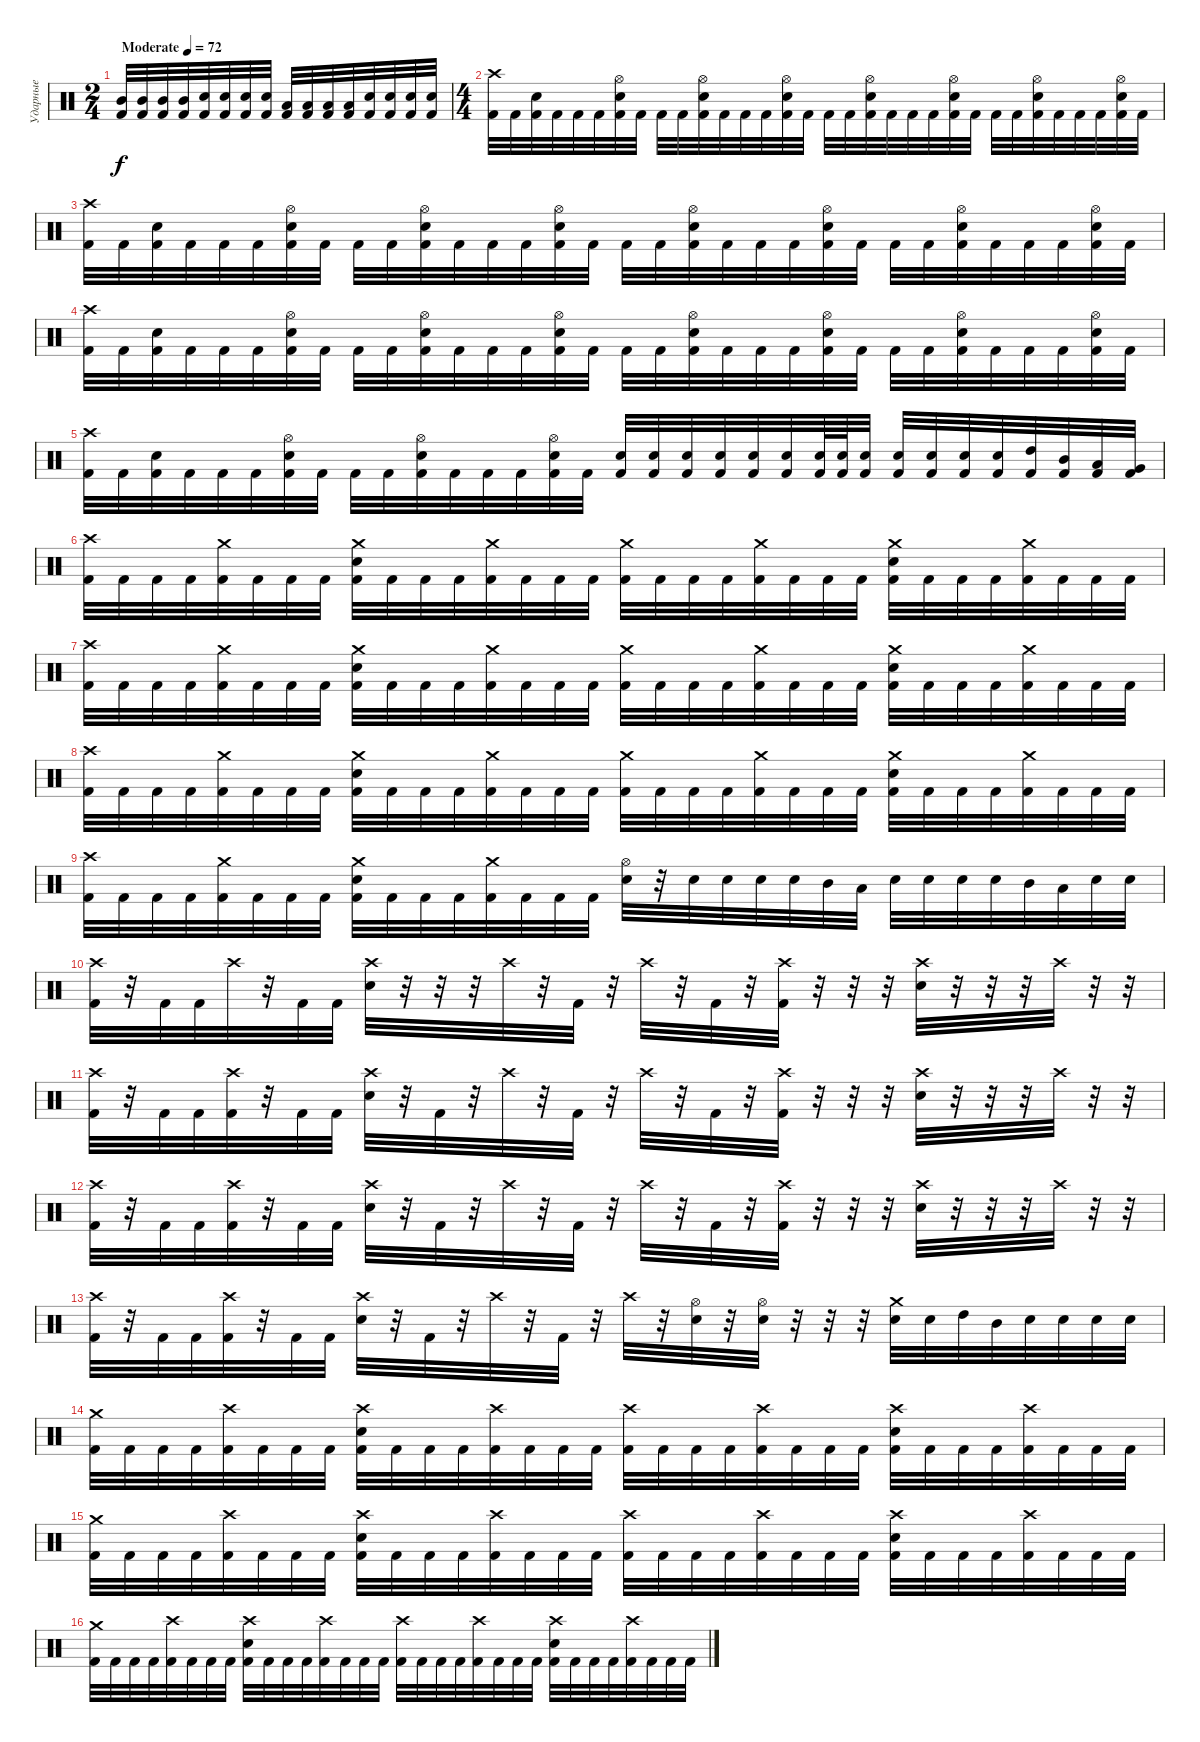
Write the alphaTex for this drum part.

\track ("Ударные" "Ударные") {instrument percussion}
\staff {score}
\articulation defaults
\ts (2 4)
\tempo (72 "Moderate")
\clef neutral
\ks c
("Mid Tom (hit)" "Kick (hit) 2").32{dy f volume 1} ("Mid Tom (hit)" "Kick (hit) 2").32{volume 2} ("Mid Tom (hit)" "Kick (hit) 2").32{volume 3} ("Mid Tom (hit)" "Kick (hit) 2").32{volume 4} ("Electric Snare (hit)" "Kick (hit) 2").32{volume 5} ("Electric Snare (hit)" "Kick (hit) 2").32{volume 6} ("Electric Snare (hit)" "Kick (hit) 2").32{volume 7} ("Electric Snare (hit)" "Kick (hit) 2").32{volume 8} ("Low Tom (hit)" "Kick (hit) 2").32{volume 9} ("Low Tom (hit)" "Kick (hit) 2").32{volume 10} ("Low Tom (hit)" "Kick (hit) 2").32{volume 11} ("Low Tom (hit)" "Kick (hit) 2").32{volume 12} ("Electric Snare (hit)" "Kick (hit) 2").32{volume 13} ("Electric Snare (hit)" "Kick (hit) 2").32{volume 14} ("Electric Snare (hit)" "Kick (hit) 2").32{volume 15} ("Electric Snare (hit)" "Kick (hit) 2").32{volume 16} |
\ts (4 4)
("Crash high (hit)" "Kick (hit) 2").32 "Kick (hit) 2".32 ("Kick (hit) 2" "Electric Snare (hit)").32 "Kick (hit) 2".32 "Kick (hit) 2".32 "Kick (hit) 2".32 ("Hi-Hat (open)" "Kick (hit) 2" "Electric Snare (hit)").32 "Kick (hit) 2".32 "Kick (hit) 2".32 "Kick (hit) 2".32 ("Hi-Hat (open)" "Kick (hit) 2" "Electric Snare (hit)").32 "Kick (hit) 2".32 "Kick (hit) 2".32 "Kick (hit) 2".32 ("Hi-Hat (open)" "Kick (hit) 2" "Electric Snare (hit)").32 "Kick (hit) 2".32 "Kick (hit) 2".32 "Kick (hit) 2".32 ("Hi-Hat (open)" "Kick (hit) 2" "Electric Snare (hit)").32 "Kick (hit) 2".32 "Kick (hit) 2".32 "Kick (hit) 2".32 ("Hi-Hat (open)" "Kick (hit) 2" "Electric Snare (hit)").32 "Kick (hit) 2".32 "Kick (hit) 2".32 "Kick (hit) 2".32 ("Hi-Hat (open)" "Kick (hit) 2" "Electric Snare (hit)").32 "Kick (hit) 2".32 "Kick (hit) 2".32 "Kick (hit) 2".32 ("Hi-Hat (open)" "Kick (hit) 2" "Electric Snare (hit)").32 "Kick (hit) 2".32 |
("Crash high (hit)" "Kick (hit) 2").32 "Kick (hit) 2".32 ("Kick (hit) 2" "Electric Snare (hit)").32 "Kick (hit) 2".32 "Kick (hit) 2".32 "Kick (hit) 2".32 ("Hi-Hat (open)" "Kick (hit) 2" "Electric Snare (hit)").32 "Kick (hit) 2".32 "Kick (hit) 2".32 "Kick (hit) 2".32 ("Hi-Hat (open)" "Kick (hit) 2" "Electric Snare (hit)").32 "Kick (hit) 2".32 "Kick (hit) 2".32 "Kick (hit) 2".32 ("Hi-Hat (open)" "Kick (hit) 2" "Electric Snare (hit)").32 "Kick (hit) 2".32 "Kick (hit) 2".32 "Kick (hit) 2".32 ("Hi-Hat (open)" "Kick (hit) 2" "Electric Snare (hit)").32 "Kick (hit) 2".32 "Kick (hit) 2".32 "Kick (hit) 2".32 ("Hi-Hat (open)" "Kick (hit) 2" "Electric Snare (hit)").32 "Kick (hit) 2".32 "Kick (hit) 2".32 "Kick (hit) 2".32 ("Hi-Hat (open)" "Kick (hit) 2" "Electric Snare (hit)").32 "Kick (hit) 2".32 "Kick (hit) 2".32 "Kick (hit) 2".32 ("Hi-Hat (open)" "Kick (hit) 2" "Electric Snare (hit)").32 "Kick (hit) 2".32 |
("Crash high (hit)" "Kick (hit) 2").32 "Kick (hit) 2".32 ("Kick (hit) 2" "Electric Snare (hit)").32 "Kick (hit) 2".32 "Kick (hit) 2".32 "Kick (hit) 2".32 ("Hi-Hat (open)" "Kick (hit) 2" "Electric Snare (hit)").32 "Kick (hit) 2".32 "Kick (hit) 2".32 "Kick (hit) 2".32 ("Hi-Hat (open)" "Kick (hit) 2" "Electric Snare (hit)").32 "Kick (hit) 2".32 "Kick (hit) 2".32 "Kick (hit) 2".32 ("Hi-Hat (open)" "Kick (hit) 2" "Electric Snare (hit)").32 "Kick (hit) 2".32 "Kick (hit) 2".32 "Kick (hit) 2".32 ("Hi-Hat (open)" "Kick (hit) 2" "Electric Snare (hit)").32 "Kick (hit) 2".32 "Kick (hit) 2".32 "Kick (hit) 2".32 ("Hi-Hat (open)" "Kick (hit) 2" "Electric Snare (hit)").32 "Kick (hit) 2".32 "Kick (hit) 2".32 "Kick (hit) 2".32 ("Hi-Hat (open)" "Kick (hit) 2" "Electric Snare (hit)").32 "Kick (hit) 2".32 "Kick (hit) 2".32 "Kick (hit) 2".32 ("Hi-Hat (open)" "Kick (hit) 2" "Electric Snare (hit)").32 "Kick (hit) 2".32 |
("Crash high (hit)" "Kick (hit) 2").32 "Kick (hit) 2".32 ("Kick (hit) 2" "Electric Snare (hit)").32 "Kick (hit) 2".32 "Kick (hit) 2".32 "Kick (hit) 2".32 ("Hi-Hat (open)" "Kick (hit) 2" "Electric Snare (hit)").32 "Kick (hit) 2".32 "Kick (hit) 2".32 "Kick (hit) 2".32 ("Hi-Hat (open)" "Kick (hit) 2" "Electric Snare (hit)").32 "Kick (hit) 2".32 "Kick (hit) 2".32 "Kick (hit) 2".32 ("Hi-Hat (open)" "Kick (hit) 2" "Electric Snare (hit)").32 "Kick (hit) 2".32 ("Kick (hit) 2" "Electric Snare (hit)").32 ("Kick (hit) 2" "Electric Snare (hit)").32 ("Kick (hit) 2" "Electric Snare (hit)").32 ("Kick (hit) 2" "Electric Snare (hit)").32 ("Kick (hit) 2" "Electric Snare (hit)").32 ("Kick (hit) 2" "Electric Snare (hit)").32 ("Kick (hit) 2" "Electric Snare (hit)").64 ("Kick (hit) 2" "Electric Snare (hit)").64 ("Kick (hit) 2" "Electric Snare (hit)").32 ("Kick (hit) 2" "Electric Snare (hit)").32 ("Kick (hit) 2" "Electric Snare (hit)").32 ("Kick (hit) 2" "Electric Snare (hit)").32 ("Kick (hit) 2" "Electric Snare (hit)").32 ("Kick (hit) 2" "High Tom (hit)").32 ("Kick (hit) 2" "Mid Tom (hit)").32 ("Kick (hit) 2" "Low Tom (hit)").32 ("Kick (hit) 2" "Very Low Tom (hit)").32 |
("Crash high (hit)" "Kick (hit) 2").32 "Kick (hit) 2".32 "Kick (hit) 2".32 "Kick (hit) 2".32 ("Crash medium (hit)" "Kick (hit) 2").32 "Kick (hit) 2".32 "Kick (hit) 2".32 "Kick (hit) 2".32 ("Crash medium (hit)" "Kick (hit) 2" "Electric Snare (hit)").32 "Kick (hit) 2".32 "Kick (hit) 2".32 "Kick (hit) 2".32 ("Crash medium (hit)" "Kick (hit) 2").32 "Kick (hit) 2".32 "Kick (hit) 2".32 "Kick (hit) 2".32 ("Crash medium (hit)" "Kick (hit) 2").32 "Kick (hit) 2".32 "Kick (hit) 2".32 "Kick (hit) 2".32 ("Crash medium (hit)" "Kick (hit) 2").32 "Kick (hit) 2".32 "Kick (hit) 2".32 "Kick (hit) 2".32 ("Crash medium (hit)" "Kick (hit) 2" "Electric Snare (hit)").32 "Kick (hit) 2".32 "Kick (hit) 2".32 "Kick (hit) 2".32 ("Crash medium (hit)" "Kick (hit) 2").32 "Kick (hit) 2".32 "Kick (hit) 2".32 "Kick (hit) 2".32 |
("Crash high (hit)" "Kick (hit) 2").32 "Kick (hit) 2".32 "Kick (hit) 2".32 "Kick (hit) 2".32 ("Crash medium (hit)" "Kick (hit) 2").32 "Kick (hit) 2".32 "Kick (hit) 2".32 "Kick (hit) 2".32 ("Crash medium (hit)" "Kick (hit) 2" "Electric Snare (hit)").32 "Kick (hit) 2".32 "Kick (hit) 2".32 "Kick (hit) 2".32 ("Crash medium (hit)" "Kick (hit) 2").32 "Kick (hit) 2".32 "Kick (hit) 2".32 "Kick (hit) 2".32 ("Crash medium (hit)" "Kick (hit) 2").32 "Kick (hit) 2".32 "Kick (hit) 2".32 "Kick (hit) 2".32 ("Crash medium (hit)" "Kick (hit) 2").32 "Kick (hit) 2".32 "Kick (hit) 2".32 "Kick (hit) 2".32 ("Crash medium (hit)" "Kick (hit) 2" "Electric Snare (hit)").32 "Kick (hit) 2".32 "Kick (hit) 2".32 "Kick (hit) 2".32 ("Crash medium (hit)" "Kick (hit) 2").32 "Kick (hit) 2".32 "Kick (hit) 2".32 "Kick (hit) 2".32 |
("Crash high (hit)" "Kick (hit) 2").32 "Kick (hit) 2".32 "Kick (hit) 2".32 "Kick (hit) 2".32 ("Crash medium (hit)" "Kick (hit) 2").32 "Kick (hit) 2".32 "Kick (hit) 2".32 "Kick (hit) 2".32 ("Crash medium (hit)" "Kick (hit) 2" "Electric Snare (hit)").32 "Kick (hit) 2".32 "Kick (hit) 2".32 "Kick (hit) 2".32 ("Crash medium (hit)" "Kick (hit) 2").32 "Kick (hit) 2".32 "Kick (hit) 2".32 "Kick (hit) 2".32 ("Crash medium (hit)" "Kick (hit) 2").32 "Kick (hit) 2".32 "Kick (hit) 2".32 "Kick (hit) 2".32 ("Crash medium (hit)" "Kick (hit) 2").32 "Kick (hit) 2".32 "Kick (hit) 2".32 "Kick (hit) 2".32 ("Crash medium (hit)" "Kick (hit) 2" "Electric Snare (hit)").32 "Kick (hit) 2".32 "Kick (hit) 2".32 "Kick (hit) 2".32 ("Crash medium (hit)" "Kick (hit) 2").32 "Kick (hit) 2".32 "Kick (hit) 2".32 "Kick (hit) 2".32 |
("Crash high (hit)" "Kick (hit) 2").32 "Kick (hit) 2".32 "Kick (hit) 2".32 "Kick (hit) 2".32 ("Crash medium (hit)" "Kick (hit) 2").32 "Kick (hit) 2".32 "Kick (hit) 2".32 "Kick (hit) 2".32 ("Crash medium (hit)" "Kick (hit) 2" "Electric Snare (hit)").32 "Kick (hit) 2".32 "Kick (hit) 2".32 "Kick (hit) 2".32 ("Crash medium (hit)" "Kick (hit) 2").32 "Kick (hit) 2".32 "Kick (hit) 2".32 "Kick (hit) 2".32 ("Hi-Hat (open)" "Electric Snare (hit)").32 r.32 "Electric Snare (hit)".32 "Electric Snare (hit)".32 "Electric Snare (hit)".32 "Electric Snare (hit)".32 "Mid Tom (hit)".32 "Low Tom (hit)".32 "Electric Snare (hit)".32 "Electric Snare (hit)".32 "Electric Snare (hit)".32 "Electric Snare (hit)".32 "Mid Tom (hit)".32 "Low Tom (hit)".32 "Electric Snare (hit)".32 "Electric Snare (hit)".32 |
("Crash high (hit)" "Kick (hit) 2").32 r.32 "Kick (hit) 2".32 "Kick (hit) 2".32 "Crash high (hit)".32 r.32 "Kick (hit) 2".32 "Kick (hit) 2".32 ("Crash high (hit)" "Electric Snare (hit)").32 r.32 r.32 r.32 "Crash high (hit)".32 r.32 "Kick (hit) 2".32 r.32 "Crash high (hit)".32 r.32 "Kick (hit) 2".32 r.32 ("Crash high (hit)" "Kick (hit) 2").32 r.32 r.32 r.32 ("Crash high (hit)" "Electric Snare (hit)").32 r.32 r.32 r.32 "Crash high (hit)".32 r.32 r.32 |
("Crash high (hit)" "Kick (hit) 2").32 r.32 "Kick (hit) 2".32 "Kick (hit) 2".32 ("Crash high (hit)" "Kick (hit) 2").32 r.32 "Kick (hit) 2".32 "Kick (hit) 2".32 ("Crash high (hit)" "Electric Snare (hit)").32 r.32 "Kick (hit) 2".32 r.32 "Crash high (hit)".32 r.32 "Kick (hit) 2".32 r.32 "Crash high (hit)".32 r.32 "Kick (hit) 2".32 r.32 ("Crash high (hit)" "Kick (hit) 2").32 r.32 r.32 r.32 ("Crash high (hit)" "Electric Snare (hit)").32 r.32 r.32 r.32 "Crash high (hit)".32 r.32 r.32 |
("Crash high (hit)" "Kick (hit) 2").32 r.32 "Kick (hit) 2".32 "Kick (hit) 2".32 ("Crash high (hit)" "Kick (hit) 2").32 r.32 "Kick (hit) 2".32 "Kick (hit) 2".32 ("Crash high (hit)" "Electric Snare (hit)").32 r.32 "Kick (hit) 2".32 r.32 "Crash high (hit)".32 r.32 "Kick (hit) 2".32 r.32 "Crash high (hit)".32 r.32 "Kick (hit) 2".32 r.32 ("Crash high (hit)" "Kick (hit) 2").32 r.32 r.32 r.32 ("Crash high (hit)" "Electric Snare (hit)").32 r.32 r.32 r.32 "Crash high (hit)".32 r.32 r.32 |
("Crash high (hit)" "Kick (hit) 2").32 r.32 "Kick (hit) 2".32 "Kick (hit) 2".32 ("Crash high (hit)" "Kick (hit) 2").32 r.32 "Kick (hit) 2".32 "Kick (hit) 2".32 ("Crash high (hit)" "Electric Snare (hit)").32 r.32 "Kick (hit) 2".32 r.32 "Crash high (hit)".32 r.32 "Kick (hit) 2".32 r.32 "Crash high (hit)".32 r.32 ("Hi-Hat (open)" "Electric Snare (hit)").32 r.32 ("Hi-Hat (open)" "Electric Snare (hit)").32 r.32 r.32 r.32 ("Crash medium (hit)" "Electric Snare (hit)").32 "Electric Snare (hit)".32 "High Tom (hit)".32 "Mid Tom (hit)".32 "Electric Snare (hit)".32 "Electric Snare (hit)".32 "Electric Snare (hit)".32 "Electric Snare (hit)".32 |
("Crash medium (hit)" "Kick (hit) 2").32 "Kick (hit) 2".32 "Kick (hit) 2".32 "Kick (hit) 2".32 ("Crash high (hit)" "Kick (hit) 2").32 "Kick (hit) 2".32 "Kick (hit) 2".32 "Kick (hit) 2".32 ("Crash high (hit)" "Kick (hit) 2" "Electric Snare (hit)").32 "Kick (hit) 2".32 "Kick (hit) 2".32 "Kick (hit) 2".32 ("Crash high (hit)" "Kick (hit) 2").32 "Kick (hit) 2".32 "Kick (hit) 2".32 "Kick (hit) 2".32 ("Crash high (hit)" "Kick (hit) 2").32 "Kick (hit) 2".32 "Kick (hit) 2".32 "Kick (hit) 2".32 ("Crash high (hit)" "Kick (hit) 2").32 "Kick (hit) 2".32 "Kick (hit) 2".32 "Kick (hit) 2".32 ("Crash high (hit)" "Kick (hit) 2" "Electric Snare (hit)").32 "Kick (hit) 2".32 "Kick (hit) 2".32 "Kick (hit) 2".32 ("Crash high (hit)" "Kick (hit) 2").32 "Kick (hit) 2".32 "Kick (hit) 2".32 "Kick (hit) 2".32 |
("Crash medium (hit)" "Kick (hit) 2").32 "Kick (hit) 2".32 "Kick (hit) 2".32 "Kick (hit) 2".32 ("Crash high (hit)" "Kick (hit) 2").32 "Kick (hit) 2".32 "Kick (hit) 2".32 "Kick (hit) 2".32 ("Crash high (hit)" "Kick (hit) 2" "Electric Snare (hit)").32 "Kick (hit) 2".32 "Kick (hit) 2".32 "Kick (hit) 2".32 ("Crash high (hit)" "Kick (hit) 2").32 "Kick (hit) 2".32 "Kick (hit) 2".32 "Kick (hit) 2".32 ("Crash high (hit)" "Kick (hit) 2").32 "Kick (hit) 2".32 "Kick (hit) 2".32 "Kick (hit) 2".32 ("Crash high (hit)" "Kick (hit) 2").32 "Kick (hit) 2".32 "Kick (hit) 2".32 "Kick (hit) 2".32 ("Crash high (hit)" "Kick (hit) 2" "Electric Snare (hit)").32 "Kick (hit) 2".32 "Kick (hit) 2".32 "Kick (hit) 2".32 ("Crash high (hit)" "Kick (hit) 2").32 "Kick (hit) 2".32 "Kick (hit) 2".32 "Kick (hit) 2".32 |
("Crash medium (hit)" "Kick (hit) 2").32 "Kick (hit) 2".32 "Kick (hit) 2".32 "Kick (hit) 2".32 ("Crash high (hit)" "Kick (hit) 2").32 "Kick (hit) 2".32 "Kick (hit) 2".32 "Kick (hit) 2".32 ("Crash high (hit)" "Kick (hit) 2" "Electric Snare (hit)").32 "Kick (hit) 2".32 "Kick (hit) 2".32 "Kick (hit) 2".32 ("Crash high (hit)" "Kick (hit) 2").32 "Kick (hit) 2".32 "Kick (hit) 2".32 "Kick (hit) 2".32 ("Crash high (hit)" "Kick (hit) 2").32 "Kick (hit) 2".32 "Kick (hit) 2".32 "Kick (hit) 2".32 ("Crash high (hit)" "Kick (hit) 2").32 "Kick (hit) 2".32 "Kick (hit) 2".32 "Kick (hit) 2".32 ("Crash high (hit)" "Kick (hit) 2" "Electric Snare (hit)").32 "Kick (hit) 2".32 "Kick (hit) 2".32 "Kick (hit) 2".32 ("Crash high (hit)" "Kick (hit) 2").32 "Kick (hit) 2".32 "Kick (hit) 2".32 "Kick (hit) 2".32
